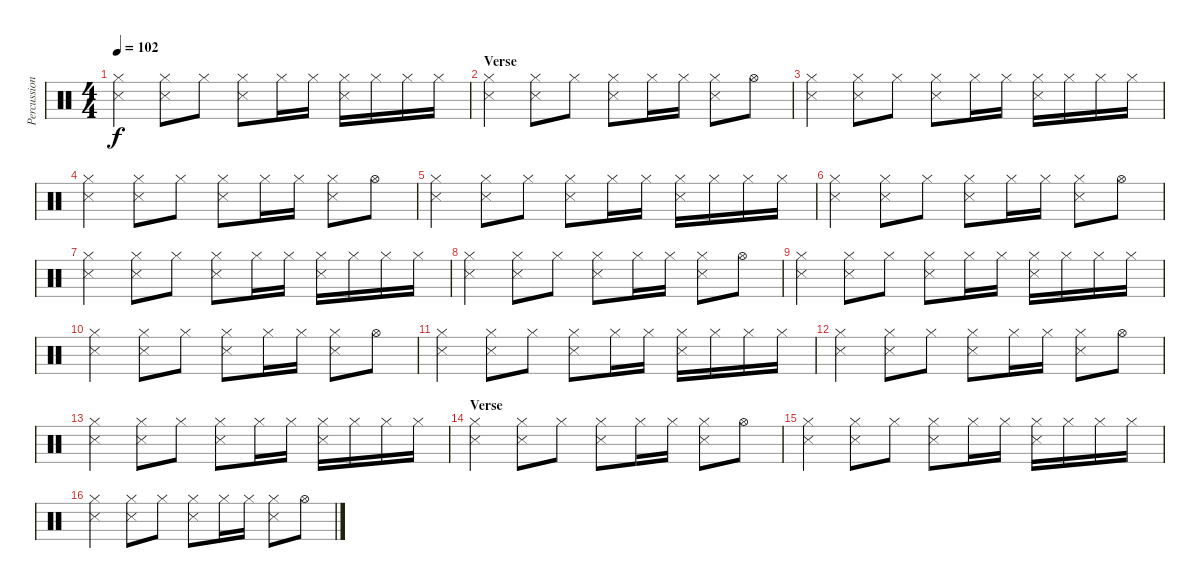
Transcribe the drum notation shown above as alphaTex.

\track ("Percussion" "Percussion") {instrument percussion}
\staff {score}
\articulation defaults
\ts (4 4)
\tempo 102
\clef neutral
\ks c
("Snare (side stick) 3" "Hi-Hat (closed)").4{dy f} ("Snare (side stick) 3" "Hi-Hat (closed)").8 "Hi-Hat (closed)".8 ("Snare (side stick) 3" "Hi-Hat (closed)").8 "Hi-Hat (closed)".16 "Hi-Hat (closed)".16 ("Snare (side stick) 3" "Hi-Hat (closed)").16 "Hi-Hat (closed)".16 "Hi-Hat (closed)".16 "Hi-Hat (closed)".16 |
\section ("" "Verse")
("Snare (side stick) 3" "Hi-Hat (closed)").4 ("Snare (side stick) 3" "Hi-Hat (closed)").8 "Hi-Hat (closed)".8 ("Snare (side stick) 3" "Hi-Hat (closed)").8 "Hi-Hat (closed)".16 "Hi-Hat (closed)".16 ("Snare (side stick) 3" "Hi-Hat (closed)").8 "Hi-Hat (open)".8 |
("Snare (side stick) 3" "Hi-Hat (closed)").4 ("Snare (side stick) 3" "Hi-Hat (closed)").8 "Hi-Hat (closed)".8 ("Snare (side stick) 3" "Hi-Hat (closed)").8 "Hi-Hat (closed)".16 "Hi-Hat (closed)".16 ("Snare (side stick) 3" "Hi-Hat (closed)").16 "Hi-Hat (closed)".16 "Hi-Hat (closed)".16 "Hi-Hat (closed)".16 |
("Snare (side stick) 3" "Hi-Hat (closed)").4 ("Snare (side stick) 3" "Hi-Hat (closed)").8 "Hi-Hat (closed)".8 ("Snare (side stick) 3" "Hi-Hat (closed)").8 "Hi-Hat (closed)".16 "Hi-Hat (closed)".16 ("Snare (side stick) 3" "Hi-Hat (closed)").8 "Hi-Hat (open)".8 |
("Snare (side stick) 3" "Hi-Hat (closed)").4 ("Snare (side stick) 3" "Hi-Hat (closed)").8 "Hi-Hat (closed)".8 ("Snare (side stick) 3" "Hi-Hat (closed)").8 "Hi-Hat (closed)".16 "Hi-Hat (closed)".16 ("Snare (side stick) 3" "Hi-Hat (closed)").16 "Hi-Hat (closed)".16 "Hi-Hat (closed)".16 "Hi-Hat (closed)".16 |
("Snare (side stick) 3" "Hi-Hat (closed)").4 ("Snare (side stick) 3" "Hi-Hat (closed)").8 "Hi-Hat (closed)".8 ("Snare (side stick) 3" "Hi-Hat (closed)").8 "Hi-Hat (closed)".16 "Hi-Hat (closed)".16 ("Snare (side stick) 3" "Hi-Hat (closed)").8 "Hi-Hat (open)".8 |
("Snare (side stick) 3" "Hi-Hat (closed)").4 ("Snare (side stick) 3" "Hi-Hat (closed)").8 "Hi-Hat (closed)".8 ("Snare (side stick) 3" "Hi-Hat (closed)").8 "Hi-Hat (closed)".16 "Hi-Hat (closed)".16 ("Snare (side stick) 3" "Hi-Hat (closed)").16 "Hi-Hat (closed)".16 "Hi-Hat (closed)".16 "Hi-Hat (closed)".16 |
("Snare (side stick) 3" "Hi-Hat (closed)").4 ("Snare (side stick) 3" "Hi-Hat (closed)").8 "Hi-Hat (closed)".8 ("Snare (side stick) 3" "Hi-Hat (closed)").8 "Hi-Hat (closed)".16 "Hi-Hat (closed)".16 ("Snare (side stick) 3" "Hi-Hat (closed)").8 "Hi-Hat (open)".8 |
("Snare (side stick) 3" "Hi-Hat (closed)").4 ("Snare (side stick) 3" "Hi-Hat (closed)").8 "Hi-Hat (closed)".8 ("Snare (side stick) 3" "Hi-Hat (closed)").8 "Hi-Hat (closed)".16 "Hi-Hat (closed)".16 ("Snare (side stick) 3" "Hi-Hat (closed)").16 "Hi-Hat (closed)".16 "Hi-Hat (closed)".16 "Hi-Hat (closed)".16 |
("Snare (side stick) 3" "Hi-Hat (closed)").4 ("Snare (side stick) 3" "Hi-Hat (closed)").8 "Hi-Hat (closed)".8 ("Snare (side stick) 3" "Hi-Hat (closed)").8 "Hi-Hat (closed)".16 "Hi-Hat (closed)".16 ("Snare (side stick) 3" "Hi-Hat (closed)").8 "Hi-Hat (open)".8 |
("Snare (side stick) 3" "Hi-Hat (closed)").4 ("Snare (side stick) 3" "Hi-Hat (closed)").8 "Hi-Hat (closed)".8 ("Snare (side stick) 3" "Hi-Hat (closed)").8 "Hi-Hat (closed)".16 "Hi-Hat (closed)".16 ("Snare (side stick) 3" "Hi-Hat (closed)").16 "Hi-Hat (closed)".16 "Hi-Hat (closed)".16 "Hi-Hat (closed)".16 |
("Snare (side stick) 3" "Hi-Hat (closed)").4 ("Snare (side stick) 3" "Hi-Hat (closed)").8 "Hi-Hat (closed)".8 ("Snare (side stick) 3" "Hi-Hat (closed)").8 "Hi-Hat (closed)".16 "Hi-Hat (closed)".16 ("Snare (side stick) 3" "Hi-Hat (closed)").8 "Hi-Hat (open)".8 |
("Snare (side stick) 3" "Hi-Hat (closed)").4 ("Snare (side stick) 3" "Hi-Hat (closed)").8 "Hi-Hat (closed)".8 ("Snare (side stick) 3" "Hi-Hat (closed)").8 "Hi-Hat (closed)".16 "Hi-Hat (closed)".16 ("Snare (side stick) 3" "Hi-Hat (closed)").16 "Hi-Hat (closed)".16 "Hi-Hat (closed)".16 "Hi-Hat (closed)".16 |
\section ("" "Verse")
("Snare (side stick) 3" "Hi-Hat (closed)").4 ("Snare (side stick) 3" "Hi-Hat (closed)").8 "Hi-Hat (closed)".8 ("Snare (side stick) 3" "Hi-Hat (closed)").8 "Hi-Hat (closed)".16 "Hi-Hat (closed)".16 ("Snare (side stick) 3" "Hi-Hat (closed)").8 "Hi-Hat (open)".8 |
("Snare (side stick) 3" "Hi-Hat (closed)").4 ("Snare (side stick) 3" "Hi-Hat (closed)").8 "Hi-Hat (closed)".8 ("Snare (side stick) 3" "Hi-Hat (closed)").8 "Hi-Hat (closed)".16 "Hi-Hat (closed)".16 ("Snare (side stick) 3" "Hi-Hat (closed)").16 "Hi-Hat (closed)".16 "Hi-Hat (closed)".16 "Hi-Hat (closed)".16 |
("Snare (side stick) 3" "Hi-Hat (closed)").4 ("Snare (side stick) 3" "Hi-Hat (closed)").8 "Hi-Hat (closed)".8 ("Snare (side stick) 3" "Hi-Hat (closed)").8 "Hi-Hat (closed)".16 "Hi-Hat (closed)".16 ("Snare (side stick) 3" "Hi-Hat (closed)").8 "Hi-Hat (open)".8
